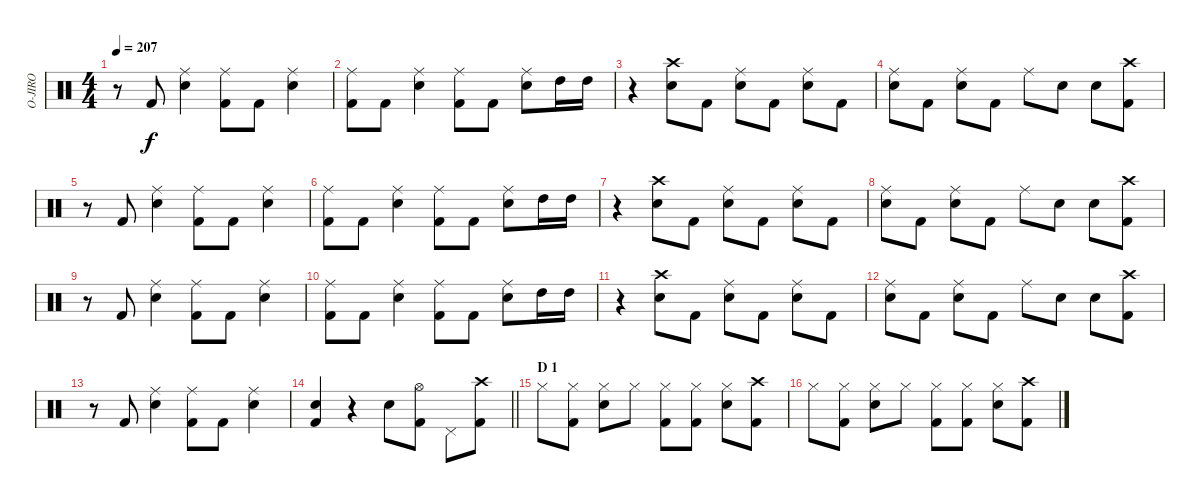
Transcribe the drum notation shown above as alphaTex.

\track ("O-JIRO" "O-JIRO") {instrument percussion}
\staff {score}
\articulation defaults
\ts (4 4)
\tempo 207
\clef neutral
\ks c
r.8{dy f} "Kick (hit) 2".8 ("Ride (middle)" "Snare (hit) 2").4 ("Ride (middle)" "Kick (hit) 2").8 "Kick (hit) 2".8 ("Ride (middle)" "Snare (hit) 2").4 |
("Ride (middle)" "Kick (hit) 2").8 "Kick (hit) 2".8 ("Ride (middle)" "Snare (hit) 2").4 ("Ride (middle)" "Kick (hit) 2").8 "Kick (hit) 2".8 ("Ride (middle)" "Snare (hit) 2").8 "High Tom (hit)".16 "High Tom (hit)".16 |
r.4 ("Crash high (hit)" "Snare (hit) 2").8 "Kick (hit) 2".8 ("Ride (middle)" "Snare (hit) 2").8 "Kick (hit) 2".8 ("Ride (middle)" "Snare (hit) 2").8 "Kick (hit) 2".8 |
("Ride (middle)" "Snare (hit) 2").8 "Kick (hit) 2".8 ("Ride (middle)" "Snare (hit) 2").8 "Kick (hit) 2".8 "Ride (middle)".8 "Snare (hit) 2".8 "Snare (hit) 2".8 ("Crash high (hit)" "Kick (hit) 2").8 |
r.8 "Kick (hit) 2".8 ("Ride (middle)" "Snare (hit) 2").4 ("Ride (middle)" "Kick (hit) 2").8 "Kick (hit) 2".8 ("Ride (middle)" "Snare (hit) 2").4 |
("Ride (middle)" "Kick (hit) 2").8 "Kick (hit) 2".8 ("Ride (middle)" "Snare (hit) 2").4 ("Ride (middle)" "Kick (hit) 2").8 "Kick (hit) 2".8 ("Ride (middle)" "Snare (hit) 2").8 "High Tom (hit)".16 "High Tom (hit)".16 |
r.4 ("Crash high (hit)" "Snare (hit) 2").8 "Kick (hit) 2".8 ("Ride (middle)" "Snare (hit) 2").8 "Kick (hit) 2".8 ("Ride (middle)" "Snare (hit) 2").8 "Kick (hit) 2".8 |
("Ride (middle)" "Snare (hit) 2").8 "Kick (hit) 2".8 ("Ride (middle)" "Snare (hit) 2").8 "Kick (hit) 2".8 "Ride (middle)".8 "Snare (hit) 2".8 "Snare (hit) 2".8 ("Crash high (hit)" "Kick (hit) 2").8 |
r.8 "Kick (hit) 2".8 ("Ride (middle)" "Snare (hit) 2").4 ("Ride (middle)" "Kick (hit) 2").8 "Kick (hit) 2".8 ("Ride (middle)" "Snare (hit) 2").4 |
("Ride (middle)" "Kick (hit) 2").8 "Kick (hit) 2".8 ("Ride (middle)" "Snare (hit) 2").4 ("Ride (middle)" "Kick (hit) 2").8 "Kick (hit) 2".8 ("Ride (middle)" "Snare (hit) 2").8 "High Tom (hit)".16 "High Tom (hit)".16 |
r.4 ("Crash high (hit)" "Snare (hit) 2").8 "Kick (hit) 2".8 ("Ride (middle)" "Snare (hit) 2").8 "Kick (hit) 2".8 ("Ride (middle)" "Snare (hit) 2").8 "Kick (hit) 2".8 |
("Ride (middle)" "Snare (hit) 2").8 "Kick (hit) 2".8 ("Ride (middle)" "Snare (hit) 2").8 "Kick (hit) 2".8 "Ride (middle)".8 "Snare (hit) 2".8 "Snare (hit) 2".8 ("Crash high (hit)" "Kick (hit) 2").8 |
r.8 "Kick (hit) 2".8 ("Ride (middle)" "Snare (hit) 2").4 ("Ride (middle)" "Kick (hit) 2").8 "Kick (hit) 2".8 ("Ride (middle)" "Snare (hit) 2").4 |
\barLineRight lightlight
("Snare (hit) 2" "Kick (hit) 2").4 r.4 "Snare (hit) 2".8 ("Hi-Hat (open)" "Kick (hit) 2").8 "Pedal Hi-Hat (hit)".8 ("Crash high (hit)" "Kick (hit) 2").8 |
\section ("" "D 1")
"Hi-Hat (closed)".8 ("Hi-Hat (closed)" "Kick (hit) 2").8 ("Hi-Hat (closed)" "Snare (hit) 2").8 "Hi-Hat (closed)".8 ("Hi-Hat (closed)" "Kick (hit) 2").8 ("Hi-Hat (closed)" "Kick (hit) 2").8 ("Hi-Hat (closed)" "Snare (hit) 2").8 ("Crash high (hit)" "Kick (hit) 2").8 |
"Hi-Hat (closed)".8 ("Hi-Hat (closed)" "Kick (hit) 2").8 ("Hi-Hat (closed)" "Snare (hit) 2").8 "Hi-Hat (closed)".8 ("Hi-Hat (closed)" "Kick (hit) 2").8 ("Hi-Hat (closed)" "Kick (hit) 2").8 ("Hi-Hat (closed)" "Snare (hit) 2").8 ("Crash high (hit)" "Kick (hit) 2").8
